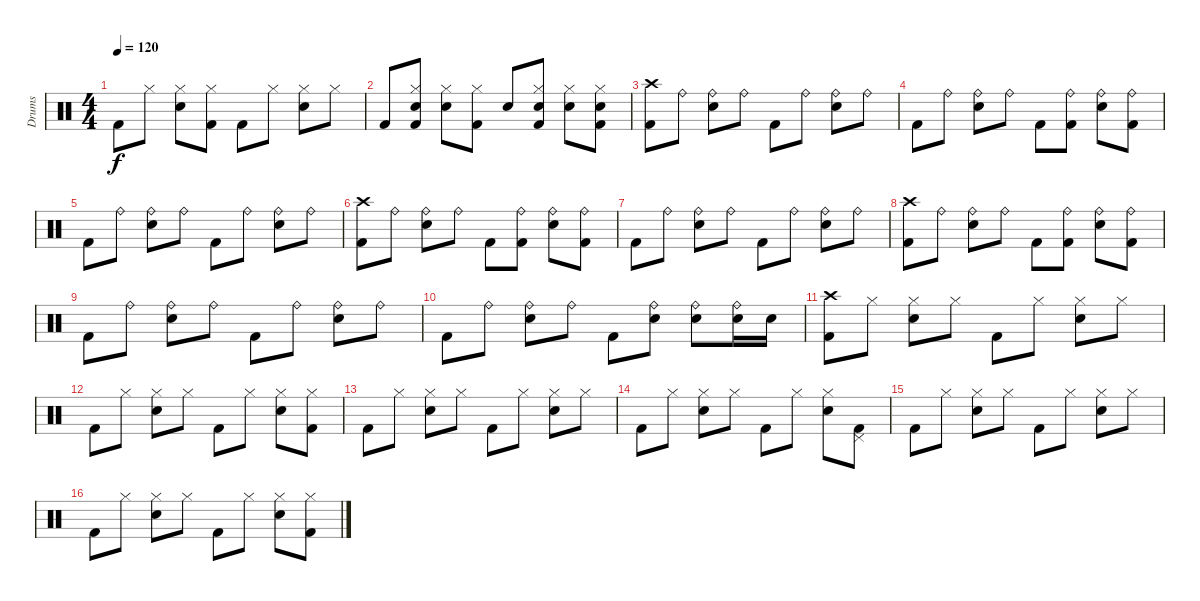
\track ("Drums" "Drums") {instrument percussion}
\staff {score}
\articulation defaults
\ts (4 4)
\tempo 120
\clef neutral
\ks c "Kick (hit) 2".8{dy f} "Hi-Hat (closed)".8
("Hi-Hat (closed)" "Snare (hit) 2").8 ("Hi-Hat (closed)" "Kick (hit) 2").8 "Kick (hit) 2".8 "Hi-Hat (closed)".8 ("Hi-Hat (closed)" "Snare (hit) 2").8 "Hi-Hat (closed)".8 |
"Kick (hit) 2".8 ("Hi-Hat (closed)" "Snare (hit) 2" "Kick (hit) 2").8 ("Hi-Hat (closed)" "Snare (hit) 2").8 ("Hi-Hat (closed)" "Kick (hit) 2").8 "Snare (hit) 2".8 ("Hi-Hat (closed)" "Snare (hit) 2" "Kick (hit) 2").8 ("Hi-Hat (closed)" "Snare (hit) 2").8 ("Hi-Hat (closed)" "Snare (hit) 2" "Kick (hit) 2").8 |
("Crash high (hit)" "Kick (hit) 2").8 "Ride (bell)".8 ("Ride (bell)" "Snare (hit) 2").8 "Ride (bell)".8 "Kick (hit) 2".8 "Ride (bell)".8 ("Ride (bell)" "Snare (hit) 2").8 "Ride (bell)".8 |
"Kick (hit) 2".8 "Ride (bell)".8 ("Ride (bell)" "Snare (hit) 2").8 "Ride (bell)".8 "Kick (hit) 2".8 ("Ride (bell)" "Kick (hit) 2").8 ("Ride (bell)" "Snare (hit) 2").8 ("Ride (bell)" "Kick (hit) 2").8 |
"Kick (hit) 2".8 "Ride (bell)".8 ("Ride (bell)" "Snare (hit) 2").8 "Ride (bell)".8 "Kick (hit) 2".8 "Ride (bell)".8 ("Ride (bell)" "Snare (hit) 2").8 "Ride (bell)".8 |
("Crash high (hit)" "Kick (hit) 2").8 "Ride (bell)".8 ("Ride (bell)" "Snare (hit) 2").8 "Ride (bell)".8 "Kick (hit) 2".8 ("Ride (bell)" "Kick (hit) 2").8 ("Ride (bell)" "Snare (hit) 2").8 ("Ride (bell)" "Kick (hit) 2").8 |
"Kick (hit) 2".8 "Ride (bell)".8 ("Ride (bell)" "Snare (hit) 2").8 "Ride (bell)".8 "Kick (hit) 2".8 "Ride (bell)".8 ("Ride (bell)" "Snare (hit) 2").8 "Ride (bell)".8 |
("Crash high (hit)" "Kick (hit) 2").8 "Ride (bell)".8 ("Ride (bell)" "Snare (hit) 2").8 "Ride (bell)".8 "Kick (hit) 2".8 ("Ride (bell)" "Kick (hit) 2").8 ("Ride (bell)" "Snare (hit) 2").8 ("Ride (bell)" "Kick (hit) 2").8 |
"Kick (hit) 2".8 "Ride (bell)".8 ("Ride (bell)" "Snare (hit) 2").8 "Ride (bell)".8 "Kick (hit) 2".8 "Ride (bell)".8 ("Ride (bell)" "Snare (hit) 2").8 "Ride (bell)".8 |
"Kick (hit) 2".8 "Ride (bell)".8 ("Ride (bell)" "Snare (hit) 2").8 "Ride (bell)".8 "Kick (hit) 2".8 ("Ride (bell)" "Snare (hit) 2").8 ("Ride (bell)" "Snare (hit) 2").8 ("Ride (bell)" "Snare (hit) 2").16 "Snare (hit) 2".16 |
("Crash high (hit)" "Kick (hit) 2").8 "Hi-Hat (closed)".8 ("Hi-Hat (closed)" "Snare (hit) 2").8 "Hi-Hat (closed)".8 "Kick (hit) 2".8 "Hi-Hat (closed)".8 ("Hi-Hat (closed)" "Snare (hit) 2").8 "Hi-Hat (closed)".8 |
"Kick (hit) 2".8 "Hi-Hat (closed)".8 ("Hi-Hat (closed)" "Snare (hit) 2").8 "Hi-Hat (closed)".8 "Kick (hit) 2".8 "Hi-Hat (closed)".8 ("Hi-Hat (closed)" "Snare (hit) 2").8 ("Hi-Hat (closed)" "Kick (hit) 2").8 |
"Kick (hit) 2".8 "Hi-Hat (closed)".8 ("Hi-Hat (closed)" "Snare (hit) 2").8 "Hi-Hat (closed)".8 "Kick (hit) 2".8 "Hi-Hat (closed)".8 ("Hi-Hat (closed)" "Snare (hit) 2").8 "Hi-Hat (closed)".8 |
"Kick (hit) 2".8 "Hi-Hat (closed)".8 ("Hi-Hat (closed)" "Snare (hit) 2").8 "Hi-Hat (closed)".8 "Kick (hit) 2".8 "Hi-Hat (closed)".8 ("Hi-Hat (closed)" "Snare (hit) 2").8 ("Pedal Hi-Hat (hit)" "Kick (hit) 2").8 |
"Kick (hit) 2".8 "Hi-Hat (closed)".8 ("Hi-Hat (closed)" "Snare (hit) 2").8 "Hi-Hat (closed)".8 "Kick (hit) 2".8 "Hi-Hat (closed)".8 ("Hi-Hat (closed)" "Snare (hit) 2").8 "Hi-Hat (closed)".8 |
"Kick (hit) 2".8 "Hi-Hat (closed)".8 ("Hi-Hat (closed)" "Snare (hit) 2").8 "Hi-Hat (closed)".8 "Kick (hit) 2".8 "Hi-Hat (closed)".8 ("Hi-Hat (closed)" "Snare (hit) 2").8 ("Hi-Hat (closed)" "Kick (hit) 2").8
